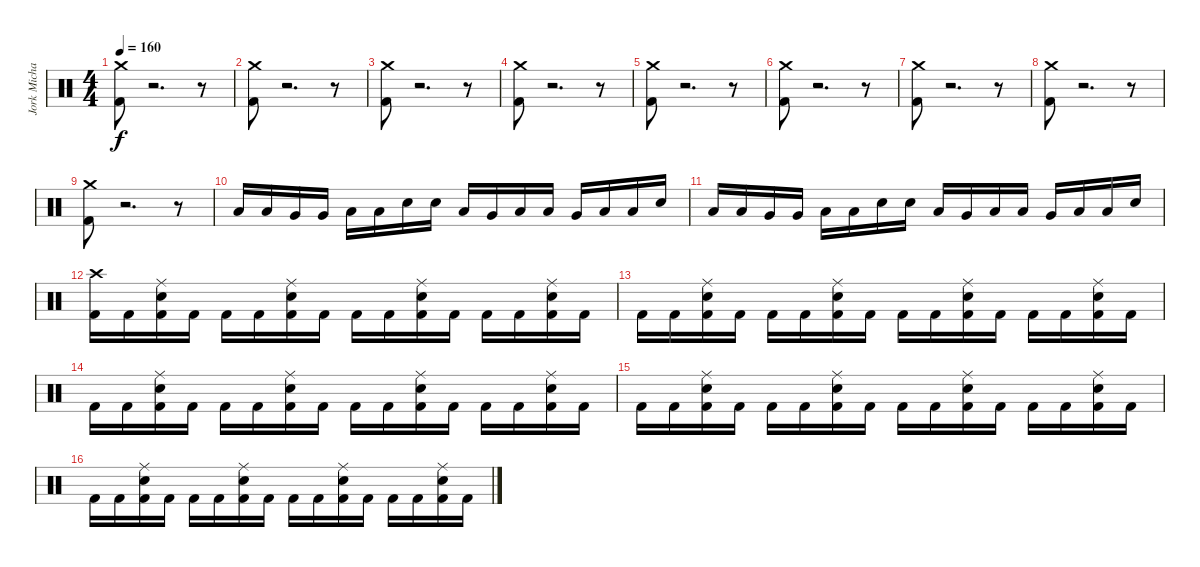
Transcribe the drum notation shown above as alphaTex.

\track ("Jork Michael" "Jork Micha") {instrument percussion}
\staff {score}
\articulation defaults
\ts (4 4)
\tempo 160
\clef neutral
\ks c
("Crash medium (hit)" "Kick (hit) 2").8{dy f} r.2{d} r.8 |
("Crash medium (hit)" "Kick (hit) 2").8 r.2{d} r.8 |
("Crash medium (hit)" "Kick (hit) 2").8 r.2{d} r.8 |
("Crash medium (hit)" "Kick (hit) 2").8 r.2{d} r.8 |
("Crash medium (hit)" "Kick (hit) 2").8 r.2{d} r.8 |
("Crash medium (hit)" "Kick (hit) 2").8 r.2{d} r.8 |
("Crash medium (hit)" "Kick (hit) 2").8 r.2{d} r.8 |
("Crash medium (hit)" "Kick (hit) 2").8 r.2{d} r.8 |
("Crash medium (hit)" "Kick (hit) 2").8 r.2{d} r.8 |
"Low Floor Tom (hit)".16 "Low Floor Tom (hit)".16 "Very Low Tom (hit)".16 "Very Low Tom (hit)".16 "Low Tom (hit)".16 "Low Tom (hit)".16 "Electric Snare (hit)".16 "Electric Snare (hit)".16 "Low Floor Tom (hit)".16 "Very Low Tom (hit)".16 "Low Floor Tom (hit)".16 "Low Tom (hit)".16 "Very Low Tom (hit)".16 "Low Tom (hit)".16 "Low Floor Tom (hit)".16 "Electric Snare (hit)".16 |
"Low Floor Tom (hit)".16 "Low Floor Tom (hit)".16 "Very Low Tom (hit)".16 "Very Low Tom (hit)".16 "Low Tom (hit)".16 "Low Tom (hit)".16 "Electric Snare (hit)".16 "Electric Snare (hit)".16 "Low Floor Tom (hit)".16 "Very Low Tom (hit)".16 "Low Floor Tom (hit)".16 "Low Tom (hit)".16 "Very Low Tom (hit)".16 "Low Tom (hit)".16 "Low Floor Tom (hit)".16 "Electric Snare (hit)".16 |
("Crash high (hit)" "Kick (hit) 2").16 "Kick (hit) 2".16 ("Ride (middle)" "Electric Snare (hit)" "Kick (hit) 2").16 "Kick (hit) 2".16 "Kick (hit) 2".16 "Kick (hit) 2".16 ("Ride (middle)" "Electric Snare (hit)" "Kick (hit) 2").16 "Kick (hit) 2".16 "Kick (hit) 2".16 "Kick (hit) 2".16 ("Ride (middle)" "Electric Snare (hit)" "Kick (hit) 2").16 "Kick (hit) 2".16 "Kick (hit) 2".16 "Kick (hit) 2".16 ("Ride (middle)" "Electric Snare (hit)" "Kick (hit) 2").16 "Kick (hit) 2".16 |
"Kick (hit) 2".16 "Kick (hit) 2".16 ("Ride (middle)" "Electric Snare (hit)" "Kick (hit) 2").16 "Kick (hit) 2".16 "Kick (hit) 2".16 "Kick (hit) 2".16 ("Ride (middle)" "Electric Snare (hit)" "Kick (hit) 2").16 "Kick (hit) 2".16 "Kick (hit) 2".16 "Kick (hit) 2".16 ("Ride (middle)" "Electric Snare (hit)" "Kick (hit) 2").16 "Kick (hit) 2".16 "Kick (hit) 2".16 "Kick (hit) 2".16 ("Ride (middle)" "Electric Snare (hit)" "Kick (hit) 2").16 "Kick (hit) 2".16 |
"Kick (hit) 2".16 "Kick (hit) 2".16 ("Ride (middle)" "Electric Snare (hit)" "Kick (hit) 2").16 "Kick (hit) 2".16 "Kick (hit) 2".16 "Kick (hit) 2".16 ("Ride (middle)" "Electric Snare (hit)" "Kick (hit) 2").16 "Kick (hit) 2".16 "Kick (hit) 2".16 "Kick (hit) 2".16 ("Ride (middle)" "Electric Snare (hit)" "Kick (hit) 2").16 "Kick (hit) 2".16 "Kick (hit) 2".16 "Kick (hit) 2".16 ("Ride (middle)" "Electric Snare (hit)" "Kick (hit) 2").16 "Kick (hit) 2".16 |
"Kick (hit) 2".16 "Kick (hit) 2".16 ("Ride (middle)" "Electric Snare (hit)" "Kick (hit) 2").16 "Kick (hit) 2".16 "Kick (hit) 2".16 "Kick (hit) 2".16 ("Ride (middle)" "Electric Snare (hit)" "Kick (hit) 2").16 "Kick (hit) 2".16 "Kick (hit) 2".16 "Kick (hit) 2".16 ("Ride (middle)" "Electric Snare (hit)" "Kick (hit) 2").16 "Kick (hit) 2".16 "Kick (hit) 2".16 "Kick (hit) 2".16 ("Ride (middle)" "Electric Snare (hit)" "Kick (hit) 2").16 "Kick (hit) 2".16 |
"Kick (hit) 2".16 "Kick (hit) 2".16 ("Ride (middle)" "Electric Snare (hit)" "Kick (hit) 2").16 "Kick (hit) 2".16 "Kick (hit) 2".16 "Kick (hit) 2".16 ("Ride (middle)" "Electric Snare (hit)" "Kick (hit) 2").16 "Kick (hit) 2".16 "Kick (hit) 2".16 "Kick (hit) 2".16 ("Ride (middle)" "Electric Snare (hit)" "Kick (hit) 2").16 "Kick (hit) 2".16 "Kick (hit) 2".16 "Kick (hit) 2".16 ("Ride (middle)" "Electric Snare (hit)" "Kick (hit) 2").16 "Kick (hit) 2".16
